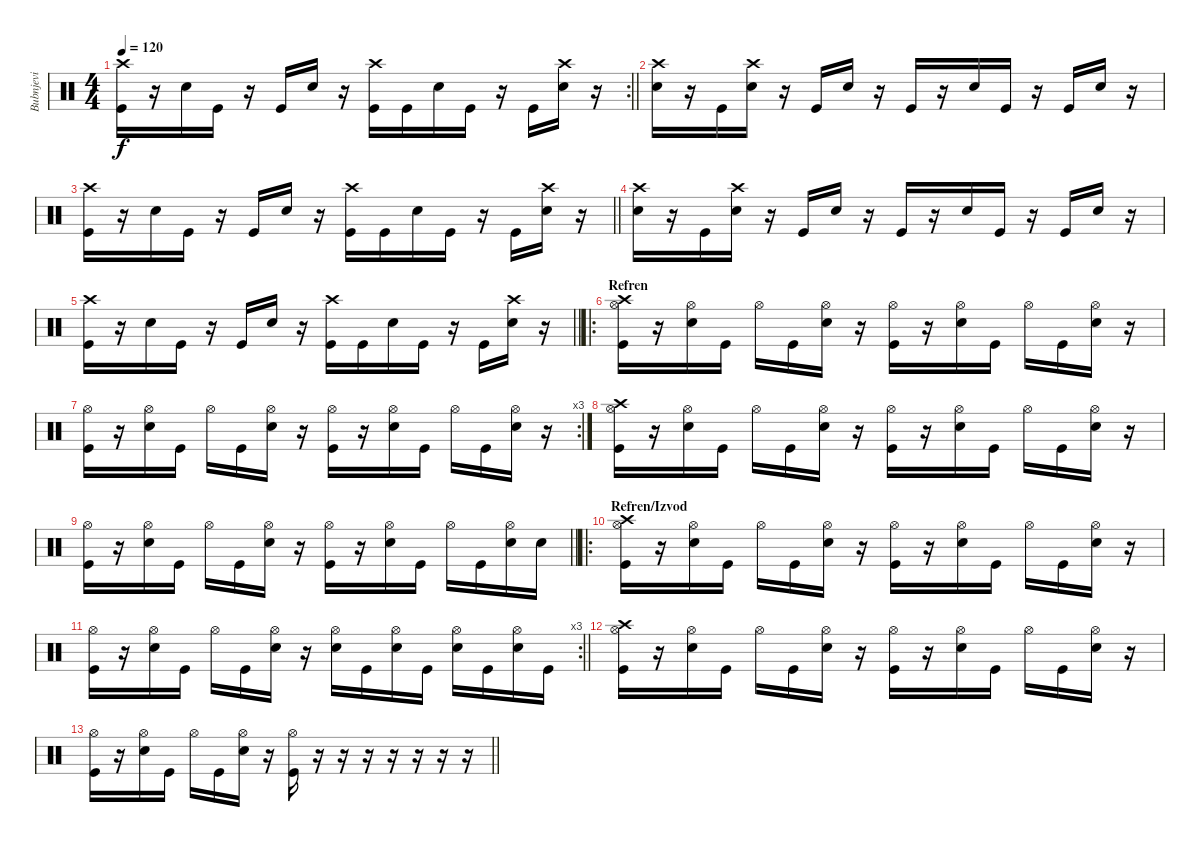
\track ("Bubnjevi" "Bubnjevi") {instrument percussion}
\staff {score}
\articulation defaults
\rc 2
\ts (4 4)
\tempo 120
\clef neutral
\barLineRight lightlight
\ks c
("Kick (hit)" "Crash high (hit)").16{dy f} r.16 "Snare (hit) 2".16 "Kick (hit)".16 r.16 "Kick (hit)".16 "Snare (hit) 2".16 r.16 ("Kick (hit)" "Crash high (hit)").16 "Kick (hit)".16 "Snare (hit) 2".16 "Kick (hit)".16 r.16 "Kick (hit)".16 ("Snare (hit) 2" "Crash high (hit)").16 r.16 |
("Snare (hit) 2" "Crash high (hit)").16 r.16 "Kick (hit)".16 ("Snare (hit) 2" "Crash high (hit)").16 r.16 "Kick (hit)".16 "Snare (hit) 2".16 r.16 "Kick (hit)".16 r.16 "Snare (hit) 2".16 "Kick (hit)".16 r.16 "Kick (hit)".16 "Snare (hit) 2".16 r.16 |
\barLineRight lightlight
("Kick (hit)" "Crash high (hit)").16 r.16 "Snare (hit) 2".16 "Kick (hit)".16 r.16 "Kick (hit)".16 "Snare (hit) 2".16 r.16 ("Kick (hit)" "Crash high (hit)").16 "Kick (hit)".16 "Snare (hit) 2".16 "Kick (hit)".16 r.16 "Kick (hit)".16 ("Snare (hit) 2" "Crash high (hit)").16 r.16 |
("Snare (hit) 2" "Crash high (hit)").16 r.16 "Kick (hit)".16 ("Snare (hit) 2" "Crash high (hit)").16 r.16 "Kick (hit)".16 "Snare (hit) 2".16 r.16 "Kick (hit)".16 r.16 "Snare (hit) 2".16 "Kick (hit)".16 r.16 "Kick (hit)".16 "Snare (hit) 2".16 r.16 |
\barLineRight lightlight
("Kick (hit)" "Crash high (hit)").16 r.16 "Snare (hit) 2".16 "Kick (hit)".16 r.16 "Kick (hit)".16 "Snare (hit) 2".16 r.16 ("Kick (hit)" "Crash high (hit)").16 "Kick (hit)".16 "Snare (hit) 2".16 "Kick (hit)".16 r.16 "Kick (hit)".16 ("Snare (hit) 2" "Crash high (hit)").16 r.16 |
\ro
\section ("" "Refren")
("Kick (hit)" "Hi-Hat (open)" "Crash high (hit)").16 r.16 ("Snare (hit) 2" "Hi-Hat (open)").16 "Kick (hit)".16 "Hi-Hat (open)".16 "Kick (hit)".16 ("Snare (hit) 2" "Hi-Hat (open)").16 r.16 ("Kick (hit)" "Hi-Hat (open)").16 r.16 ("Snare (hit) 2" "Hi-Hat (open)").16 "Kick (hit)".16 "Hi-Hat (open)".16 "Kick (hit)".16 ("Snare (hit) 2" "Hi-Hat (open)").16 r.16 |
\rc 3
("Kick (hit)" "Hi-Hat (open)").16 r.16 ("Snare (hit) 2" "Hi-Hat (open)").16 "Kick (hit)".16 "Hi-Hat (open)".16 "Kick (hit)".16 ("Snare (hit) 2" "Hi-Hat (open)").16 r.16 ("Kick (hit)" "Hi-Hat (open)").16 r.16 ("Snare (hit) 2" "Hi-Hat (open)").16 "Kick (hit)".16 "Hi-Hat (open)".16 "Kick (hit)".16 ("Snare (hit) 2" "Hi-Hat (open)").16 r.16 |
("Kick (hit)" "Hi-Hat (open)" "Crash high (hit)").16 r.16 ("Snare (hit) 2" "Hi-Hat (open)").16 "Kick (hit)".16 "Hi-Hat (open)".16 "Kick (hit)".16 ("Snare (hit) 2" "Hi-Hat (open)").16 r.16 ("Kick (hit)" "Hi-Hat (open)").16 r.16 ("Snare (hit) 2" "Hi-Hat (open)").16 "Kick (hit)".16 "Hi-Hat (open)".16 "Kick (hit)".16 ("Snare (hit) 2" "Hi-Hat (open)").16 r.16 |
\barLineRight lightlight
("Kick (hit)" "Hi-Hat (open)").16 r.16 ("Snare (hit) 2" "Hi-Hat (open)").16 "Kick (hit)".16 "Hi-Hat (open)".16 "Kick (hit)".16 ("Snare (hit) 2" "Hi-Hat (open)").16 r.16 ("Kick (hit)" "Hi-Hat (open)").16 r.16 ("Snare (hit) 2" "Hi-Hat (open)").16 "Kick (hit)".16 "Hi-Hat (open)".16 "Kick (hit)".16 ("Snare (hit) 2" "Hi-Hat (open)").16 "Snare (hit) 2".16 |
\ro
\section ("" "Refren/Izvod")
("Kick (hit)" "Hi-Hat (open)" "Crash high (hit)").16 r.16 ("Snare (hit) 2" "Hi-Hat (open)").16 "Kick (hit)".16 "Hi-Hat (open)".16 "Kick (hit)".16 ("Snare (hit) 2" "Hi-Hat (open)").16 r.16 ("Kick (hit)" "Hi-Hat (open)").16 r.16 ("Snare (hit) 2" "Hi-Hat (open)").16 "Kick (hit)".16 "Hi-Hat (open)".16 "Kick (hit)".16 ("Snare (hit) 2" "Hi-Hat (open)").16 r.16 |
\rc 3
\barLineRight lightlight
("Kick (hit)" "Hi-Hat (open)").16 r.16 ("Snare (hit) 2" "Hi-Hat (open)").16 "Kick (hit)".16 "Hi-Hat (open)".16 "Kick (hit)".16 ("Snare (hit) 2" "Hi-Hat (open)").16 r.16 ("Snare (hit) 2" "Hi-Hat (open)").16 "Kick (hit)".16 ("Snare (hit) 2" "Hi-Hat (open)").16 "Kick (hit)".16 ("Snare (hit) 2" "Hi-Hat (open)").16 "Kick (hit)".16 ("Snare (hit) 2" "Hi-Hat (open)").16 "Kick (hit)".16 |
("Kick (hit)" "Hi-Hat (open)" "Crash high (hit)").16 r.16 ("Snare (hit) 2" "Hi-Hat (open)").16 "Kick (hit)".16 "Hi-Hat (open)".16 "Kick (hit)".16 ("Snare (hit) 2" "Hi-Hat (open)").16 r.16 ("Kick (hit)" "Hi-Hat (open)").16 r.16 ("Snare (hit) 2" "Hi-Hat (open)").16 "Kick (hit)".16 "Hi-Hat (open)".16 "Kick (hit)".16 ("Snare (hit) 2" "Hi-Hat (open)").16 r.16 |
\barLineRight lightlight
("Kick (hit)" "Hi-Hat (open)").16 r.16 ("Snare (hit) 2" "Hi-Hat (open)").16 "Kick (hit)".16 "Hi-Hat (open)".16 "Kick (hit)".16 ("Snare (hit) 2" "Hi-Hat (open)").16 r.16 ("Kick (hit)" "Hi-Hat (open)").16 r.16 r.16 r.16 r.16 r.16 r.16 r.16
